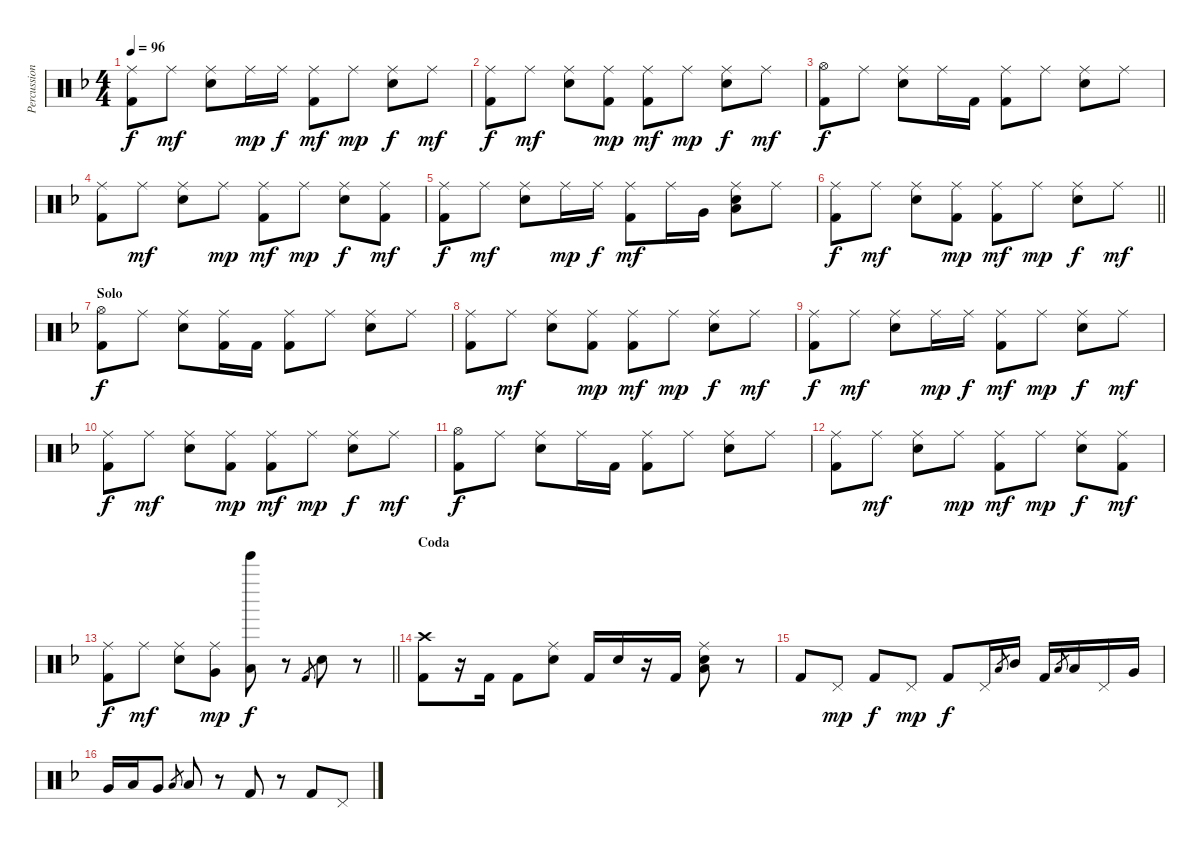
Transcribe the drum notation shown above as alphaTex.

\track ("Percussion" "Percussion") {instrument percussion}
\staff {score}
\articulation defaults
\ts (4 4)
\tempo 96
\clef neutral
\ks dminor
("Ride (middle)" "Kick (hit) 2").8{dy f} "Ride (middle)".8{dy mf} ("Ride (middle)" "Electric Snare (hit)").8 "Ride (middle)".16{dy mp} "Ride (middle)".16{dy f} ("Ride (middle)" "Kick (hit) 2").8{dy mf} "Ride (middle)".8{dy mp} ("Ride (middle)" "Electric Snare (hit)").8{dy f} "Ride (middle)".8{dy mf} |
("Ride (middle)" "Kick (hit) 2").8{dy f} "Ride (middle)".8{dy mf} ("Ride (middle)" "Electric Snare (hit)").8 ("Ride (middle)" "Kick (hit) 2").8{dy mp} ("Ride (middle)" "Kick (hit) 2").8{dy mf} "Ride (middle)".8{dy mp} ("Ride (middle)" "Electric Snare (hit)").8{dy f} "Ride (middle)".8{dy mf} |
("Hi-Hat (open)" "Kick (hit) 2").8{dy f} "Ride (middle)".8 ("Ride (middle)" "Electric Snare (hit)").8 "Ride (middle)".16 "Kick (hit) 2".16 ("Ride (middle)" "Kick (hit) 2").8 "Ride (middle)".8 ("Ride (middle)" "Electric Snare (hit)").8 "Ride (middle)".8 |
("Ride (middle)" "Kick (hit) 2").8 "Ride (middle)".8{dy mf} ("Ride (middle)" "Electric Snare (hit)").8 "Ride (middle)".8{dy mp} ("Ride (middle)" "Kick (hit) 2").8{dy mf} "Ride (middle)".8{dy mp} ("Ride (middle)" "Electric Snare (hit)").8{dy f} ("Ride (middle)" "Kick (hit) 2").8{dy mf} |
("Ride (middle)" "Kick (hit) 2").8{dy f} "Ride (middle)".8{dy mf} ("Ride (middle)" "Electric Snare (hit)").8 "Ride (middle)".16{dy mp} "Ride (middle)".16{dy f} ("Ride (middle)" "Kick (hit) 2").8{dy mf} "Ride (middle)".16 "Very Low Tom (hit)".16 ("Ride (middle)" "Electric Snare (hit)" "Low Floor Tom (hit)").8 "Ride (middle)".8 |
\barLineRight lightlight
("Ride (middle)" "Kick (hit) 2").8{dy f} "Ride (middle)".8{dy mf} ("Ride (middle)" "Electric Snare (hit)").8 ("Ride (middle)" "Kick (hit) 2").8{dy mp} ("Ride (middle)" "Kick (hit) 2").8{dy mf} "Ride (middle)".8{dy mp} ("Ride (middle)" "Electric Snare (hit)").8{dy f} "Ride (middle)".8{dy mf} |
\section ("" "Solo")
("Hi-Hat (open)" "Kick (hit) 2").8{dy f} "Ride (middle)".8 ("Ride (middle)" "Electric Snare (hit)").8 ("Ride (middle)" "Kick (hit) 2").16 "Kick (hit) 2".16 ("Ride (middle)" "Kick (hit) 2").8 "Ride (middle)".8 ("Ride (middle)" "Electric Snare (hit)").8 "Ride (middle)".8 |
("Ride (middle)" "Kick (hit) 2").8 "Ride (middle)".8{dy mf} ("Ride (middle)" "Electric Snare (hit)").8 ("Ride (middle)" "Kick (hit) 2").8{dy mp} ("Ride (middle)" "Kick (hit) 2").8{dy mf} "Ride (middle)".8{dy mp} ("Ride (middle)" "Electric Snare (hit)").8{dy f} "Ride (middle)".8{dy mf} |
("Ride (middle)" "Kick (hit) 2").8{dy f} "Ride (middle)".8{dy mf} ("Ride (middle)" "Electric Snare (hit)").8 "Ride (middle)".16{dy mp} "Ride (middle)".16{dy f} ("Ride (middle)" "Kick (hit) 2").8{dy mf} "Ride (middle)".8{dy mp} ("Ride (middle)" "Electric Snare (hit)").8{dy f} "Ride (middle)".8{dy mf} |
("Ride (middle)" "Kick (hit) 2").8{dy f} "Ride (middle)".8{dy mf} ("Ride (middle)" "Electric Snare (hit)").8 ("Ride (middle)" "Kick (hit) 2").8{dy mp} ("Ride (middle)" "Kick (hit) 2").8{dy mf} "Ride (middle)".8{dy mp} ("Ride (middle)" "Electric Snare (hit)").8{dy f} "Ride (middle)".8{dy mf} |
("Hi-Hat (open)" "Kick (hit) 2").8{dy f} "Ride (middle)".8 ("Ride (middle)" "Electric Snare (hit)").8 "Ride (middle)".16 "Kick (hit) 2".16 ("Ride (middle)" "Kick (hit) 2").8 "Ride (middle)".8 ("Ride (middle)" "Electric Snare (hit)").8 "Ride (middle)".8 |
("Ride (middle)" "Kick (hit) 2").8 "Ride (middle)".8{dy mf} ("Ride (middle)" "Electric Snare (hit)").8 "Ride (middle)".8{dy mp} ("Ride (middle)" "Kick (hit) 2").8{dy mf} "Ride (middle)".8{dy mp} ("Ride (middle)" "Electric Snare (hit)").8{dy f} ("Ride (middle)" "Kick (hit) 2").8{dy mf} |
\barLineRight lightlight
("Ride (middle)" "Kick (hit) 2").8{dy f} "Ride (middle)".8{dy mf} ("Ride (middle)" "Electric Snare (hit)").8 ("Ride (middle)" "Very Low Tom (hit)").8{dy mp} ("Tinkle Bell (hit)" "Low Floor Tom (hit)").8{dy f} r.8 "Kick (hit) 2".8{gr} "Electric Snare (hit)".8 r.8 |
\section ("" "Coda")
("Crash high (hit)" "Kick (hit) 2").8 r.16 "Kick (hit) 2".16 "Kick (hit) 2".8 ("Ride (middle)" "Electric Snare (hit)").8 "Kick (hit) 2".16 "Electric Snare (hit)".16 r.16 "Kick (hit) 2".16 ("Ride (middle)" "Electric Snare (hit)" "Low Floor Tom (hit)").8 r.8 |
"Kick (hit) 2".8 "Pedal Hi-Hat (hit)".8{dy mp} "Kick (hit) 2".8{dy f} "Pedal Hi-Hat (hit)".8{dy mp} "Kick (hit) 2".8{dy f} "Pedal Hi-Hat (hit)".16 "Low Floor Tom (hit)".8{gr} "Mid Tom (hit)".16 "Kick (hit) 2".16 "Low Floor Tom (hit)".8{gr} "Low Tom (hit)".16 "Pedal Hi-Hat (hit)".16 "Very Low Tom (hit)".16 |
"Very Low Tom (hit)".16 "Low Floor Tom (hit)".16 "Very Low Tom (hit)".8 "Low Floor Tom (hit)".8{gr} "Low Tom (hit)".8 r.8 "Kick (hit) 2".8 r.8 "Kick (hit) 2".8 "Pedal Hi-Hat (hit)".8
